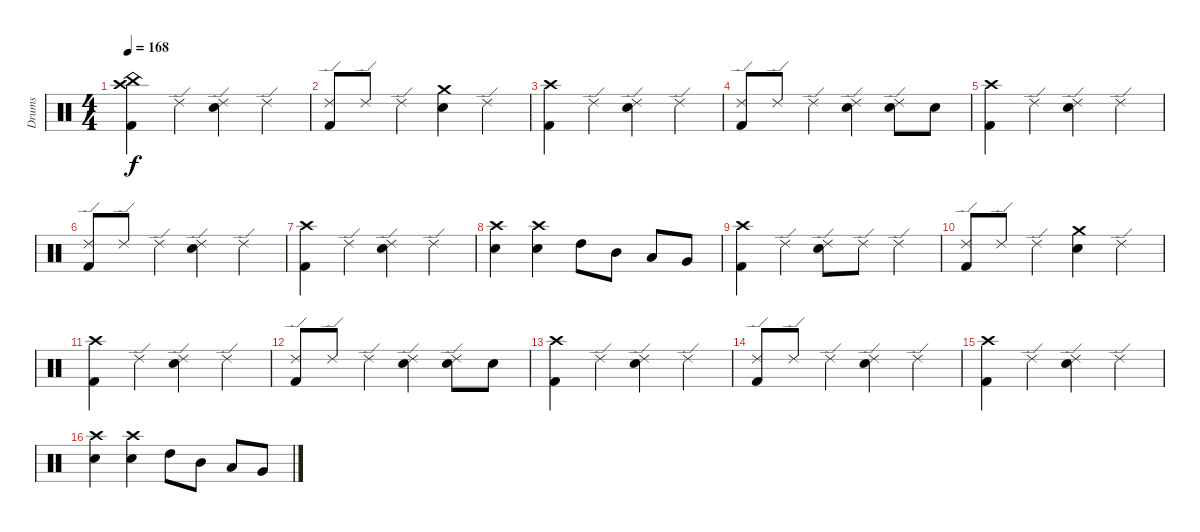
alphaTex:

\track ("Drums" "Drums") {instrument percussion}
\staff {score}
\articulation defaults
\ts (4 4)
\section ("" "")
\tempo 168
\clef neutral
\ks c
("Kick (hit) 2" "Crash high (hit)" "China (hit)").4{dy f volume 9} "Ride (edge) 2".4 ("Electric Snare (hit)" "Ride (edge) 2").4 "Ride (edge) 2".4 |
("Kick (hit) 2" "Ride (edge) 2").8 "Ride (edge) 2".8 "Ride (edge) 2".4 ("Electric Snare (hit)" "Crash medium (hit)").4 "Ride (edge) 2".4 |
("Kick (hit) 2" "Crash high (hit)").4 "Ride (edge) 2".4 ("Electric Snare (hit)" "Ride (edge) 2").4 "Ride (edge) 2".4 |
("Kick (hit) 2" "Ride (edge) 2").8{volume 7} "Ride (edge) 2".8 "Ride (edge) 2".4 ("Electric Snare (hit)" "Ride (edge) 2").4 ("Electric Snare (hit)" "Ride (edge) 2").8 "Electric Snare (hit)".8 |
("Kick (hit) 2" "Crash high (hit)").4 "Ride (edge) 2".4 ("Electric Snare (hit)" "Ride (edge) 2").4 "Ride (edge) 2".4 |
("Kick (hit) 2" "Ride (edge) 2").8 "Ride (edge) 2".8 "Ride (edge) 2".4 ("Electric Snare (hit)" "Ride (edge) 2").4 "Ride (edge) 2".4 |
("Kick (hit) 2" "Crash high (hit)").4 "Ride (edge) 2".4 ("Electric Snare (hit)" "Ride (edge) 2").4 "Ride (edge) 2".4 |
("Electric Snare (hit)" "Crash high (hit)").4 ("Electric Snare (hit)" "Crash high (hit)").4 "High Tom (hit)".8 "Mid Tom (hit)".8 "Low Tom (hit)".8 "Very Low Tom (hit)".8 |
\section ("" "")
("Kick (hit) 2" "Crash high (hit)").4{volume 0} "Ride (edge) 2".4 ("Electric Snare (hit)" "Ride (edge) 2").8 "Ride (edge) 2".8 "Ride (edge) 2".4 |
("Kick (hit) 2" "Ride (edge) 2").8 "Ride (edge) 2".8 "Ride (edge) 2".4 ("Electric Snare (hit)" "Crash medium (hit)").4 "Ride (edge) 2".4 |
("Kick (hit) 2" "Crash high (hit)").4 "Ride (edge) 2".4 ("Electric Snare (hit)" "Ride (edge) 2").4 "Ride (edge) 2".4 |
("Kick (hit) 2" "Ride (edge) 2").8 "Ride (edge) 2".8 "Ride (edge) 2".4 ("Electric Snare (hit)" "Ride (edge) 2").4 ("Electric Snare (hit)" "Ride (edge) 2").8 "Electric Snare (hit)".8 |
("Kick (hit) 2" "Crash high (hit)").4 "Ride (edge) 2".4 ("Electric Snare (hit)" "Ride (edge) 2").4 "Ride (edge) 2".4 |
("Kick (hit) 2" "Ride (edge) 2").8 "Ride (edge) 2".8 "Ride (edge) 2".4 ("Electric Snare (hit)" "Ride (edge) 2").4 "Ride (edge) 2".4 |
("Kick (hit) 2" "Crash high (hit)").4 "Ride (edge) 2".4 ("Electric Snare (hit)" "Ride (edge) 2").4 "Ride (edge) 2".4 |
("Electric Snare (hit)" "Crash high (hit)").4 ("Electric Snare (hit)" "Crash high (hit)").4 "High Tom (hit)".8 "Mid Tom (hit)".8 "Low Tom (hit)".8 "Very Low Tom (hit)".8
